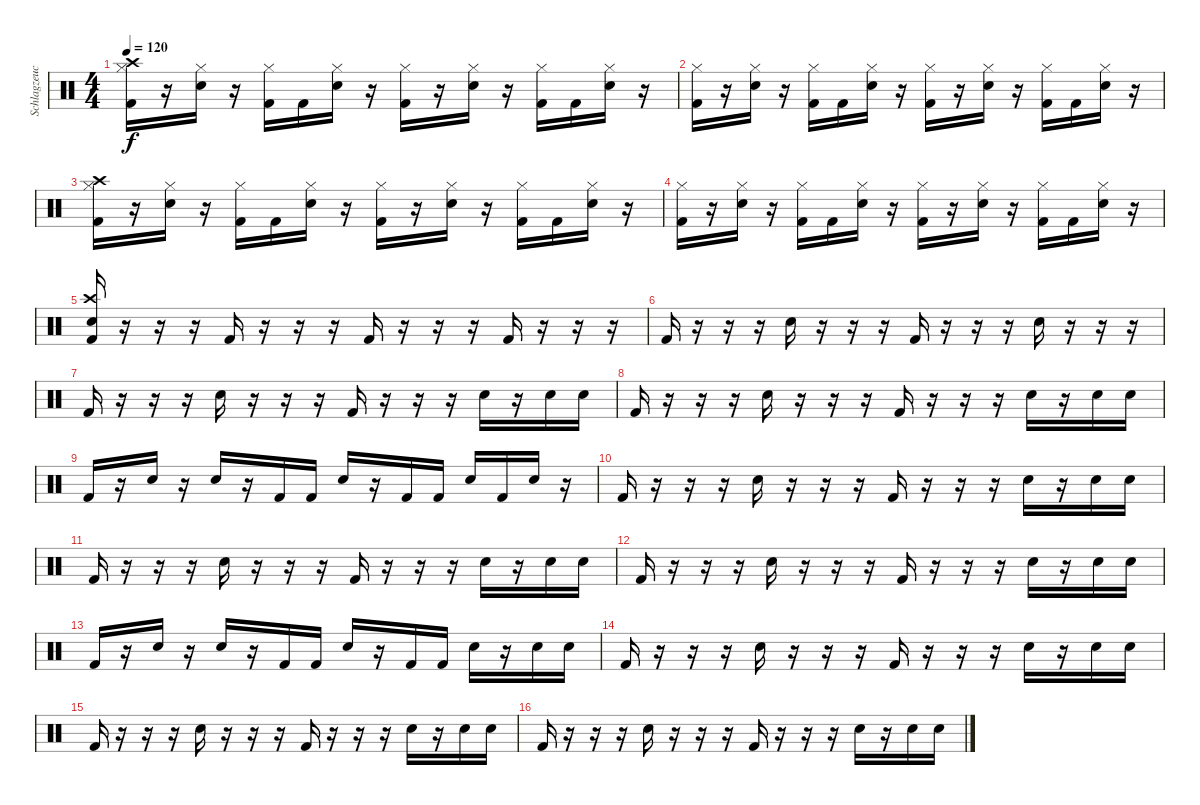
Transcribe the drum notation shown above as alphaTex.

\track ("Schlagzeuch" "Schlagzeuc") {instrument percussion}
\staff {score}
\articulation defaults
\ts (4 4)
\tempo 120
\clef neutral
\ks c
("Hi-Hat (closed)" "Kick (hit) 2" "Crash high (hit)").16{dy f} r.16 ("Hi-Hat (closed)" "Snare (hit) 2").16 r.16 ("Hi-Hat (closed)" "Kick (hit) 2").16 "Kick (hit) 2".16 ("Hi-Hat (closed)" "Snare (hit) 2").16 r.16 ("Hi-Hat (closed)" "Kick (hit) 2").16 r.16 ("Hi-Hat (closed)" "Snare (hit) 2").16 r.16 ("Hi-Hat (closed)" "Kick (hit) 2").16 "Kick (hit) 2".16 ("Hi-Hat (closed)" "Snare (hit) 2").16 r.16 |
("Hi-Hat (closed)" "Kick (hit) 2").16 r.16 ("Hi-Hat (closed)" "Snare (hit) 2").16 r.16 ("Hi-Hat (closed)" "Kick (hit) 2").16 "Kick (hit) 2".16 ("Hi-Hat (closed)" "Snare (hit) 2").16 r.16 ("Hi-Hat (closed)" "Kick (hit) 2").16 r.16 ("Hi-Hat (closed)" "Snare (hit) 2").16 r.16 ("Hi-Hat (closed)" "Kick (hit) 2").16 "Kick (hit) 2".16 ("Hi-Hat (closed)" "Snare (hit) 2").16 r.16 |
("Hi-Hat (closed)" "Kick (hit) 2" "Crash high (hit)").16 r.16 ("Hi-Hat (closed)" "Snare (hit) 2").16 r.16 ("Hi-Hat (closed)" "Kick (hit) 2").16 "Kick (hit) 2".16 ("Hi-Hat (closed)" "Snare (hit) 2").16 r.16 ("Hi-Hat (closed)" "Kick (hit) 2").16 r.16 ("Hi-Hat (closed)" "Snare (hit) 2").16 r.16 ("Hi-Hat (closed)" "Kick (hit) 2").16 "Kick (hit) 2".16 ("Hi-Hat (closed)" "Snare (hit) 2").16 r.16 |
("Hi-Hat (closed)" "Kick (hit) 2").16 r.16 ("Hi-Hat (closed)" "Snare (hit) 2").16 r.16 ("Hi-Hat (closed)" "Kick (hit) 2").16 "Kick (hit) 2".16 ("Hi-Hat (closed)" "Snare (hit) 2").16 r.16 ("Hi-Hat (closed)" "Kick (hit) 2").16 r.16 ("Hi-Hat (closed)" "Snare (hit) 2").16 r.16 ("Hi-Hat (closed)" "Kick (hit) 2").16 "Kick (hit) 2".16 ("Hi-Hat (closed)" "Snare (hit) 2").16 r.16 |
("Kick (hit) 2" "Snare (hit) 2" "Crash high (hit)").16 r.16 r.16 r.16 "Kick (hit) 2".16 r.16 r.16 r.16 "Kick (hit) 2".16 r.16 r.16 r.16 "Kick (hit) 2".16 r.16 r.16 r.16 |
"Kick (hit) 2".16 r.16 r.16 r.16 "Snare (hit) 2".16 r.16 r.16 r.16 "Kick (hit) 2".16 r.16 r.16 r.16 "Snare (hit) 2".16 r.16 r.16 r.16 |
"Kick (hit) 2".16 r.16 r.16 r.16 "Snare (hit) 2".16 r.16 r.16 r.16 "Kick (hit) 2".16 r.16 r.16 r.16 "Snare (hit) 2".16 r.16 "Snare (hit) 2".16 "Snare (hit) 2".16 |
"Kick (hit) 2".16 r.16 r.16 r.16 "Snare (hit) 2".16 r.16 r.16 r.16 "Kick (hit) 2".16 r.16 r.16 r.16 "Snare (hit) 2".16 r.16 "Snare (hit) 2".16 "Snare (hit) 2".16 |
"Kick (hit) 2".16 r.16 "Snare (hit) 2".16 r.16 "Snare (hit) 2".16 r.16 "Kick (hit) 2".16 "Kick (hit) 2".16 "Snare (hit) 2".16 r.16 "Kick (hit) 2".16 "Kick (hit) 2".16 "Snare (hit) 2".16 "Kick (hit) 2".16 "Snare (hit) 2".16 r.16 |
"Kick (hit) 2".16 r.16 r.16 r.16 "Snare (hit) 2".16 r.16 r.16 r.16 "Kick (hit) 2".16 r.16 r.16 r.16 "Snare (hit) 2".16 r.16 "Snare (hit) 2".16 "Snare (hit) 2".16 |
"Kick (hit) 2".16 r.16 r.16 r.16 "Snare (hit) 2".16 r.16 r.16 r.16 "Kick (hit) 2".16 r.16 r.16 r.16 "Snare (hit) 2".16 r.16 "Snare (hit) 2".16 "Snare (hit) 2".16 |
"Kick (hit) 2".16 r.16 r.16 r.16 "Snare (hit) 2".16 r.16 r.16 r.16 "Kick (hit) 2".16 r.16 r.16 r.16 "Snare (hit) 2".16 r.16 "Snare (hit) 2".16 "Snare (hit) 2".16 |
"Kick (hit) 2".16 r.16 "Snare (hit) 2".16 r.16 "Snare (hit) 2".16 r.16 "Kick (hit) 2".16 "Kick (hit) 2".16 "Snare (hit) 2".16 r.16 "Kick (hit) 2".16 "Kick (hit) 2".16 "Snare (hit) 2".16 r.16 "Snare (hit) 2".16 "Snare (hit) 2".16 |
"Kick (hit) 2".16 r.16 r.16 r.16 "Snare (hit) 2".16 r.16 r.16 r.16 "Kick (hit) 2".16 r.16 r.16 r.16 "Snare (hit) 2".16 r.16 "Snare (hit) 2".16 "Snare (hit) 2".16 |
"Kick (hit) 2".16 r.16 r.16 r.16 "Snare (hit) 2".16 r.16 r.16 r.16 "Kick (hit) 2".16 r.16 r.16 r.16 "Snare (hit) 2".16 r.16 "Snare (hit) 2".16 "Snare (hit) 2".16 |
"Kick (hit) 2".16 r.16 r.16 r.16 "Snare (hit) 2".16 r.16 r.16 r.16 "Kick (hit) 2".16 r.16 r.16 r.16 "Snare (hit) 2".16 r.16 "Snare (hit) 2".16 "Snare (hit) 2".16
